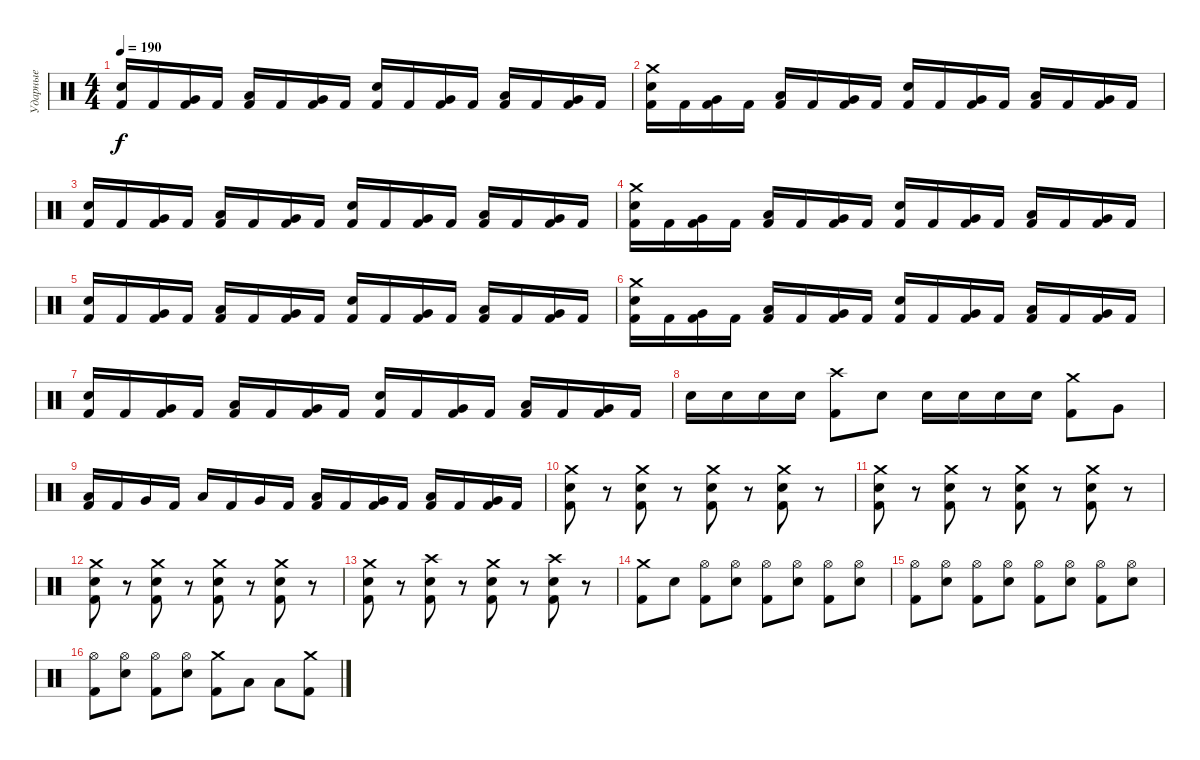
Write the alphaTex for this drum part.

\track ("Ударные" "Ударные") {instrument percussion}
\staff {score}
\articulation defaults
\ts (4 4)
\tempo 190
\clef neutral
\ks c
("Snare (hit) 2" "Kick (hit) 2").16{dy f} "Kick (hit) 2".16 ("Very Low Tom (hit)" "Kick (hit) 2").16 "Kick (hit) 2".16 ("Low Tom (hit)" "Kick (hit) 2").16 "Kick (hit) 2".16 ("Very Low Tom (hit)" "Kick (hit) 2").16 "Kick (hit) 2".16 ("Snare (hit) 2" "Kick (hit) 2").16 "Kick (hit) 2".16 ("Very Low Tom (hit)" "Kick (hit) 2").16 "Kick (hit) 2".16 ("Low Tom (hit)" "Kick (hit) 2").16 "Kick (hit) 2".16 ("Very Low Tom (hit)" "Kick (hit) 2").16 "Kick (hit) 2".16 |
("Crash medium (hit)" "Snare (hit) 2" "Kick (hit) 2").16 "Kick (hit) 2".16 ("Very Low Tom (hit)" "Kick (hit) 2").16 "Kick (hit) 2".16 ("Low Tom (hit)" "Kick (hit) 2").16 "Kick (hit) 2".16 ("Very Low Tom (hit)" "Kick (hit) 2").16 "Kick (hit) 2".16 ("Snare (hit) 2" "Kick (hit) 2").16 "Kick (hit) 2".16 ("Very Low Tom (hit)" "Kick (hit) 2").16 "Kick (hit) 2".16 ("Low Tom (hit)" "Kick (hit) 2").16 "Kick (hit) 2".16 ("Very Low Tom (hit)" "Kick (hit) 2").16 "Kick (hit) 2".16 |
("Snare (hit) 2" "Kick (hit) 2").16 "Kick (hit) 2".16 ("Very Low Tom (hit)" "Kick (hit) 2").16 "Kick (hit) 2".16 ("Low Tom (hit)" "Kick (hit) 2").16 "Kick (hit) 2".16 ("Very Low Tom (hit)" "Kick (hit) 2").16 "Kick (hit) 2".16 ("Snare (hit) 2" "Kick (hit) 2").16 "Kick (hit) 2".16 ("Very Low Tom (hit)" "Kick (hit) 2").16 "Kick (hit) 2".16 ("Low Tom (hit)" "Kick (hit) 2").16 "Kick (hit) 2".16 ("Very Low Tom (hit)" "Kick (hit) 2").16 "Kick (hit) 2".16 |
("Crash medium (hit)" "Snare (hit) 2" "Kick (hit) 2").16 "Kick (hit) 2".16 ("Very Low Tom (hit)" "Kick (hit) 2").16 "Kick (hit) 2".16 ("Low Tom (hit)" "Kick (hit) 2").16 "Kick (hit) 2".16 ("Very Low Tom (hit)" "Kick (hit) 2").16 "Kick (hit) 2".16 ("Snare (hit) 2" "Kick (hit) 2").16 "Kick (hit) 2".16 ("Very Low Tom (hit)" "Kick (hit) 2").16 "Kick (hit) 2".16 ("Low Tom (hit)" "Kick (hit) 2").16 "Kick (hit) 2".16 ("Very Low Tom (hit)" "Kick (hit) 2").16 "Kick (hit) 2".16 |
("Snare (hit) 2" "Kick (hit) 2").16 "Kick (hit) 2".16 ("Very Low Tom (hit)" "Kick (hit) 2").16 "Kick (hit) 2".16 ("Low Tom (hit)" "Kick (hit) 2").16 "Kick (hit) 2".16 ("Very Low Tom (hit)" "Kick (hit) 2").16 "Kick (hit) 2".16 ("Snare (hit) 2" "Kick (hit) 2").16 "Kick (hit) 2".16 ("Very Low Tom (hit)" "Kick (hit) 2").16 "Kick (hit) 2".16 ("Low Tom (hit)" "Kick (hit) 2").16 "Kick (hit) 2".16 ("Very Low Tom (hit)" "Kick (hit) 2").16 "Kick (hit) 2".16 |
("Crash medium (hit)" "Snare (hit) 2" "Kick (hit) 2").16 "Kick (hit) 2".16 ("Very Low Tom (hit)" "Kick (hit) 2").16 "Kick (hit) 2".16 ("Low Tom (hit)" "Kick (hit) 2").16 "Kick (hit) 2".16 ("Very Low Tom (hit)" "Kick (hit) 2").16 "Kick (hit) 2".16 ("Snare (hit) 2" "Kick (hit) 2").16 "Kick (hit) 2".16 ("Very Low Tom (hit)" "Kick (hit) 2").16 "Kick (hit) 2".16 ("Low Tom (hit)" "Kick (hit) 2").16 "Kick (hit) 2".16 ("Very Low Tom (hit)" "Kick (hit) 2").16 "Kick (hit) 2".16 |
("Snare (hit) 2" "Kick (hit) 2").16 "Kick (hit) 2".16 ("Very Low Tom (hit)" "Kick (hit) 2").16 "Kick (hit) 2".16 ("Low Tom (hit)" "Kick (hit) 2").16 "Kick (hit) 2".16 ("Very Low Tom (hit)" "Kick (hit) 2").16 "Kick (hit) 2".16 ("Snare (hit) 2" "Kick (hit) 2").16 "Kick (hit) 2".16 ("Very Low Tom (hit)" "Kick (hit) 2").16 "Kick (hit) 2".16 ("Low Tom (hit)" "Kick (hit) 2").16 "Kick (hit) 2".16 ("Very Low Tom (hit)" "Kick (hit) 2").16 "Kick (hit) 2".16 |
"Snare (hit) 2".16 "Snare (hit) 2".16 "Snare (hit) 2".16 "Snare (hit) 2".16 ("Crash high (hit)" "Kick (hit) 2").8 "Snare (hit) 2".8 "Snare (hit) 2".16 "Snare (hit) 2".16 "Snare (hit) 2".16 "Snare (hit) 2".16 ("Crash medium (hit)" "Kick (hit) 2").8 "Very Low Tom (hit)".8 |
("Low Tom (hit)" "Kick (hit) 2").16 "Kick (hit) 2".16 "Very Low Tom (hit)".16 "Kick (hit) 2".16 "Low Tom (hit)".16 "Kick (hit) 2".16 "Very Low Tom (hit)".16 "Kick (hit) 2".16 ("Low Tom (hit)" "Kick (hit) 2").16 "Kick (hit) 2".16 ("Very Low Tom (hit)" "Kick (hit) 2").16 "Kick (hit) 2".16 ("Low Tom (hit)" "Kick (hit) 2").16 "Kick (hit) 2".16 ("Very Low Tom (hit)" "Kick (hit) 2").16 "Kick (hit) 2".16 |
("Crash medium (hit)" "Snare (hit) 2" "Kick (hit) 2").8 r.8 ("Crash medium (hit)" "Snare (hit) 2" "Kick (hit) 2").8 r.8 ("Crash medium (hit)" "Snare (hit) 2" "Kick (hit) 2").8 r.8 ("Crash medium (hit)" "Snare (hit) 2" "Kick (hit) 2").8 r.8 |
("Crash medium (hit)" "Snare (hit) 2" "Kick (hit) 2").8 r.8 ("Crash medium (hit)" "Snare (hit) 2" "Kick (hit) 2").8 r.8 ("Crash medium (hit)" "Snare (hit) 2" "Kick (hit) 2").8 r.8 ("Crash medium (hit)" "Snare (hit) 2" "Kick (hit) 2").8 r.8 |
("Crash medium (hit)" "Snare (hit) 2" "Kick (hit) 2").8 r.8 ("Crash medium (hit)" "Snare (hit) 2" "Kick (hit) 2").8 r.8 ("Crash medium (hit)" "Snare (hit) 2" "Kick (hit) 2").8 r.8 ("Crash medium (hit)" "Snare (hit) 2" "Kick (hit) 2").8 r.8 |
("Crash medium (hit)" "Snare (hit) 2" "Kick (hit) 2").8 r.8 ("Crash high (hit)" "Snare (hit) 2" "Kick (hit) 2").8 r.8 ("Crash medium (hit)" "Snare (hit) 2" "Kick (hit) 2").8 r.8 ("Crash high (hit)" "Snare (hit) 2" "Kick (hit) 2").8 r.8 |
("Crash medium (hit)" "Kick (hit) 2").8 "Snare (hit) 2".8 ("Hi-Hat (open)" "Kick (hit) 2").8 ("Hi-Hat (open)" "Snare (hit) 2").8 ("Hi-Hat (open)" "Kick (hit) 2").8 ("Hi-Hat (open)" "Snare (hit) 2").8 ("Hi-Hat (open)" "Kick (hit) 2").8 ("Hi-Hat (open)" "Snare (hit) 2").8 |
("Hi-Hat (open)" "Kick (hit) 2").8 ("Hi-Hat (open)" "Snare (hit) 2").8 ("Hi-Hat (open)" "Kick (hit) 2").8 ("Hi-Hat (open)" "Snare (hit) 2").8 ("Hi-Hat (open)" "Kick (hit) 2").8 ("Hi-Hat (open)" "Snare (hit) 2").8 ("Hi-Hat (open)" "Kick (hit) 2").8 ("Hi-Hat (open)" "Snare (hit) 2").8 |
("Hi-Hat (open)" "Kick (hit) 2").8 ("Hi-Hat (open)" "Snare (hit) 2").8 ("Hi-Hat (open)" "Kick (hit) 2").8 ("Hi-Hat (open)" "Snare (hit) 2").8 ("Crash medium (hit)" "Kick (hit) 2").8 "Low Tom (hit)".8 "Low Tom (hit)".8 ("Crash medium (hit)" "Kick (hit) 2").8
